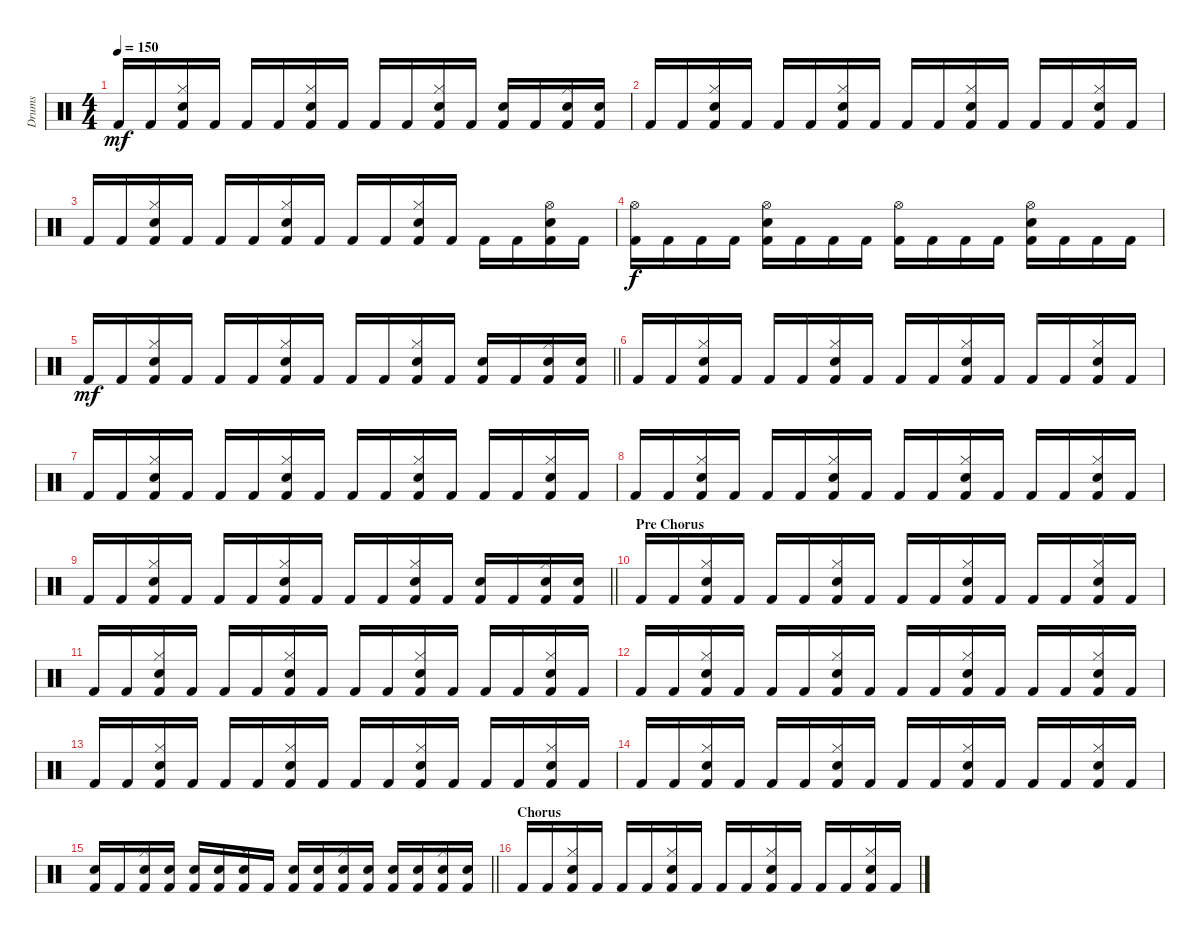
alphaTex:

\track ("Drums" "Drums") {instrument percussion}
\staff {score}
\articulation defaults
\ts (4 4)
\tempo 150
\clef neutral
\ks c "Kick (hit) 2".16{dy mf} "Kick (hit) 2".16
("Hi-Hat (closed)" "Electric Snare (hit)" "Kick (hit) 2").16 "Kick (hit) 2".16 "Kick (hit) 2".16 "Kick (hit) 2".16 ("Hi-Hat (closed)" "Electric Snare (hit)" "Kick (hit) 2").16 "Kick (hit) 2".16 "Kick (hit) 2".16 "Kick (hit) 2".16 ("Hi-Hat (closed)" "Electric Snare (hit)" "Kick (hit) 2").16 "Kick (hit) 2".16 ("Electric Snare (hit)" "Kick (hit) 2").16 "Kick (hit) 2".16 ("Hi-Hat (closed)" "Electric Snare (hit)" "Kick (hit) 2").16 ("Electric Snare (hit)" "Kick (hit) 2").16 |
"Kick (hit) 2".16 "Kick (hit) 2".16 ("Hi-Hat (closed)" "Electric Snare (hit)" "Kick (hit) 2").16 "Kick (hit) 2".16 "Kick (hit) 2".16 "Kick (hit) 2".16 ("Hi-Hat (closed)" "Electric Snare (hit)" "Kick (hit) 2").16 "Kick (hit) 2".16 "Kick (hit) 2".16 "Kick (hit) 2".16 ("Hi-Hat (closed)" "Electric Snare (hit)" "Kick (hit) 2").16 "Kick (hit) 2".16 "Kick (hit) 2".16 "Kick (hit) 2".16 ("Hi-Hat (closed)" "Electric Snare (hit)" "Kick (hit) 2").16 "Kick (hit) 2".16 |
"Kick (hit) 2".16 "Kick (hit) 2".16 ("Hi-Hat (closed)" "Electric Snare (hit)" "Kick (hit) 2").16 "Kick (hit) 2".16 "Kick (hit) 2".16 "Kick (hit) 2".16 ("Hi-Hat (closed)" "Electric Snare (hit)" "Kick (hit) 2").16 "Kick (hit) 2".16 "Kick (hit) 2".16 "Kick (hit) 2".16 ("Hi-Hat (closed)" "Electric Snare (hit)" "Kick (hit) 2").16 "Kick (hit) 2".16 "Kick (hit) 2".16 "Kick (hit) 2".16 ("Hi-Hat (open)" "Electric Snare (hit)" "Kick (hit) 2").16 "Kick (hit) 2".16 |
("Hi-Hat (open)" "Kick (hit) 2").16{dy f} "Kick (hit) 2".16 "Kick (hit) 2".16 "Kick (hit) 2".16 ("Hi-Hat (open)" "Electric Snare (hit)" "Kick (hit) 2").16 "Kick (hit) 2".16 "Kick (hit) 2".16 "Kick (hit) 2".16 ("Hi-Hat (open)" "Kick (hit) 2").16 "Kick (hit) 2".16 "Kick (hit) 2".16 "Kick (hit) 2".16 ("Hi-Hat (open)" "Electric Snare (hit)" "Kick (hit) 2").16 "Kick (hit) 2".16 "Kick (hit) 2".16 "Kick (hit) 2".16 |
\barLineRight lightlight "Kick (hit) 2".16{dy mf} "Kick (hit) 2".16
("Hi-Hat (closed)" "Electric Snare (hit)" "Kick (hit) 2").16 "Kick (hit) 2".16 "Kick (hit) 2".16 "Kick (hit) 2".16 ("Hi-Hat (closed)" "Electric Snare (hit)" "Kick (hit) 2").16 "Kick (hit) 2".16 "Kick (hit) 2".16 "Kick (hit) 2".16 ("Hi-Hat (closed)" "Electric Snare (hit)" "Kick (hit) 2").16 "Kick (hit) 2".16 ("Electric Snare (hit)" "Kick (hit) 2").16 "Kick (hit) 2".16 ("Hi-Hat (closed)" "Electric Snare (hit)" "Kick (hit) 2").16 ("Electric Snare (hit)" "Kick (hit) 2").16 |
"Kick (hit) 2".16 "Kick (hit) 2".16 ("Hi-Hat (closed)" "Electric Snare (hit)" "Kick (hit) 2").16 "Kick (hit) 2".16 "Kick (hit) 2".16 "Kick (hit) 2".16 ("Hi-Hat (closed)" "Electric Snare (hit)" "Kick (hit) 2").16 "Kick (hit) 2".16 "Kick (hit) 2".16 "Kick (hit) 2".16 ("Hi-Hat (closed)" "Electric Snare (hit)" "Kick (hit) 2").16 "Kick (hit) 2".16 "Kick (hit) 2".16 "Kick (hit) 2".16 ("Hi-Hat (closed)" "Electric Snare (hit)" "Kick (hit) 2").16 "Kick (hit) 2".16 |
"Kick (hit) 2".16 "Kick (hit) 2".16 ("Hi-Hat (closed)" "Electric Snare (hit)" "Kick (hit) 2").16 "Kick (hit) 2".16 "Kick (hit) 2".16 "Kick (hit) 2".16 ("Hi-Hat (closed)" "Electric Snare (hit)" "Kick (hit) 2").16 "Kick (hit) 2".16 "Kick (hit) 2".16 "Kick (hit) 2".16 ("Hi-Hat (closed)" "Electric Snare (hit)" "Kick (hit) 2").16 "Kick (hit) 2".16 "Kick (hit) 2".16 "Kick (hit) 2".16 ("Hi-Hat (closed)" "Electric Snare (hit)" "Kick (hit) 2").16 "Kick (hit) 2".16 |
"Kick (hit) 2".16 "Kick (hit) 2".16 ("Hi-Hat (closed)" "Electric Snare (hit)" "Kick (hit) 2").16 "Kick (hit) 2".16 "Kick (hit) 2".16 "Kick (hit) 2".16 ("Hi-Hat (closed)" "Electric Snare (hit)" "Kick (hit) 2").16 "Kick (hit) 2".16 "Kick (hit) 2".16 "Kick (hit) 2".16 ("Hi-Hat (closed)" "Electric Snare (hit)" "Kick (hit) 2").16 "Kick (hit) 2".16 "Kick (hit) 2".16 "Kick (hit) 2".16 ("Hi-Hat (closed)" "Electric Snare (hit)" "Kick (hit) 2").16 "Kick (hit) 2".16 |
\barLineRight lightlight "Kick (hit) 2".16 "Kick (hit) 2".16
("Hi-Hat (closed)" "Electric Snare (hit)" "Kick (hit) 2").16 "Kick (hit) 2".16 "Kick (hit) 2".16 "Kick (hit) 2".16 ("Hi-Hat (closed)" "Electric Snare (hit)" "Kick (hit) 2").16 "Kick (hit) 2".16 "Kick (hit) 2".16 "Kick (hit) 2".16 ("Hi-Hat (closed)" "Electric Snare (hit)" "Kick (hit) 2").16 "Kick (hit) 2".16 ("Electric Snare (hit)" "Kick (hit) 2").16 "Kick (hit) 2".16 ("Hi-Hat (closed)" "Electric Snare (hit)" "Kick (hit) 2").16 ("Electric Snare (hit)" "Kick (hit) 2").16 |
\section ("" "Pre Chorus")
"Kick (hit) 2".16 "Kick (hit) 2".16 ("Hi-Hat (closed)" "Electric Snare (hit)" "Kick (hit) 2").16 "Kick (hit) 2".16 "Kick (hit) 2".16 "Kick (hit) 2".16 ("Hi-Hat (closed)" "Electric Snare (hit)" "Kick (hit) 2").16 "Kick (hit) 2".16 "Kick (hit) 2".16 "Kick (hit) 2".16 ("Hi-Hat (closed)" "Electric Snare (hit)" "Kick (hit) 2").16 "Kick (hit) 2".16 "Kick (hit) 2".16 "Kick (hit) 2".16 ("Hi-Hat (closed)" "Electric Snare (hit)" "Kick (hit) 2").16 "Kick (hit) 2".16 |
"Kick (hit) 2".16 "Kick (hit) 2".16 ("Hi-Hat (closed)" "Electric Snare (hit)" "Kick (hit) 2").16 "Kick (hit) 2".16 "Kick (hit) 2".16 "Kick (hit) 2".16 ("Hi-Hat (closed)" "Electric Snare (hit)" "Kick (hit) 2").16 "Kick (hit) 2".16 "Kick (hit) 2".16 "Kick (hit) 2".16 ("Hi-Hat (closed)" "Electric Snare (hit)" "Kick (hit) 2").16 "Kick (hit) 2".16 "Kick (hit) 2".16 "Kick (hit) 2".16 ("Hi-Hat (closed)" "Electric Snare (hit)" "Kick (hit) 2").16 "Kick (hit) 2".16 |
"Kick (hit) 2".16 "Kick (hit) 2".16 ("Hi-Hat (closed)" "Electric Snare (hit)" "Kick (hit) 2").16 "Kick (hit) 2".16 "Kick (hit) 2".16 "Kick (hit) 2".16 ("Hi-Hat (closed)" "Electric Snare (hit)" "Kick (hit) 2").16 "Kick (hit) 2".16 "Kick (hit) 2".16 "Kick (hit) 2".16 ("Hi-Hat (closed)" "Electric Snare (hit)" "Kick (hit) 2").16 "Kick (hit) 2".16 "Kick (hit) 2".16 "Kick (hit) 2".16 ("Hi-Hat (closed)" "Electric Snare (hit)" "Kick (hit) 2").16 "Kick (hit) 2".16 |
"Kick (hit) 2".16 "Kick (hit) 2".16 ("Hi-Hat (closed)" "Electric Snare (hit)" "Kick (hit) 2").16 "Kick (hit) 2".16 "Kick (hit) 2".16 "Kick (hit) 2".16 ("Hi-Hat (closed)" "Electric Snare (hit)" "Kick (hit) 2").16 "Kick (hit) 2".16 "Kick (hit) 2".16 "Kick (hit) 2".16 ("Hi-Hat (closed)" "Electric Snare (hit)" "Kick (hit) 2").16 "Kick (hit) 2".16 "Kick (hit) 2".16 "Kick (hit) 2".16 ("Hi-Hat (closed)" "Electric Snare (hit)" "Kick (hit) 2").16 "Kick (hit) 2".16 |
"Kick (hit) 2".16 "Kick (hit) 2".16 ("Hi-Hat (closed)" "Electric Snare (hit)" "Kick (hit) 2").16 "Kick (hit) 2".16 "Kick (hit) 2".16 "Kick (hit) 2".16 ("Hi-Hat (closed)" "Electric Snare (hit)" "Kick (hit) 2").16 "Kick (hit) 2".16 "Kick (hit) 2".16 "Kick (hit) 2".16 ("Hi-Hat (closed)" "Electric Snare (hit)" "Kick (hit) 2").16 "Kick (hit) 2".16 "Kick (hit) 2".16 "Kick (hit) 2".16 ("Hi-Hat (closed)" "Electric Snare (hit)" "Kick (hit) 2").16 "Kick (hit) 2".16 |
\barLineRight lightlight
("Electric Snare (hit)" "Kick (hit) 2").16 "Kick (hit) 2".16 ("Hi-Hat (closed)" "Electric Snare (hit)" "Kick (hit) 2").16 ("Electric Snare (hit)" "Kick (hit) 2").16 ("Electric Snare (hit)" "Kick (hit) 2").16 ("Electric Snare (hit)" "Kick (hit) 2").16 ("Hi-Hat (closed)" "Electric Snare (hit)" "Kick (hit) 2").16 "Kick (hit) 2".16 ("Electric Snare (hit)" "Kick (hit) 2").16 ("Electric Snare (hit)" "Kick (hit) 2").16 ("Hi-Hat (closed)" "Electric Snare (hit)" "Kick (hit) 2").16 ("Electric Snare (hit)" "Kick (hit) 2").16 ("Electric Snare (hit)" "Kick (hit) 2").16 ("Electric Snare (hit)" "Kick (hit) 2").16 ("Hi-Hat (closed)" "Electric Snare (hit)" "Kick (hit) 2").16 ("Electric Snare (hit)" "Kick (hit) 2").16 |
\section ("" "Chorus")
"Kick (hit) 2".16 "Kick (hit) 2".16 ("Hi-Hat (closed)" "Electric Snare (hit)" "Kick (hit) 2").16 "Kick (hit) 2".16 "Kick (hit) 2".16 "Kick (hit) 2".16 ("Hi-Hat (closed)" "Electric Snare (hit)" "Kick (hit) 2").16 "Kick (hit) 2".16 "Kick (hit) 2".16 "Kick (hit) 2".16 ("Hi-Hat (closed)" "Electric Snare (hit)" "Kick (hit) 2").16 "Kick (hit) 2".16 "Kick (hit) 2".16 "Kick (hit) 2".16 ("Hi-Hat (closed)" "Electric Snare (hit)" "Kick (hit) 2").16 "Kick (hit) 2".16
